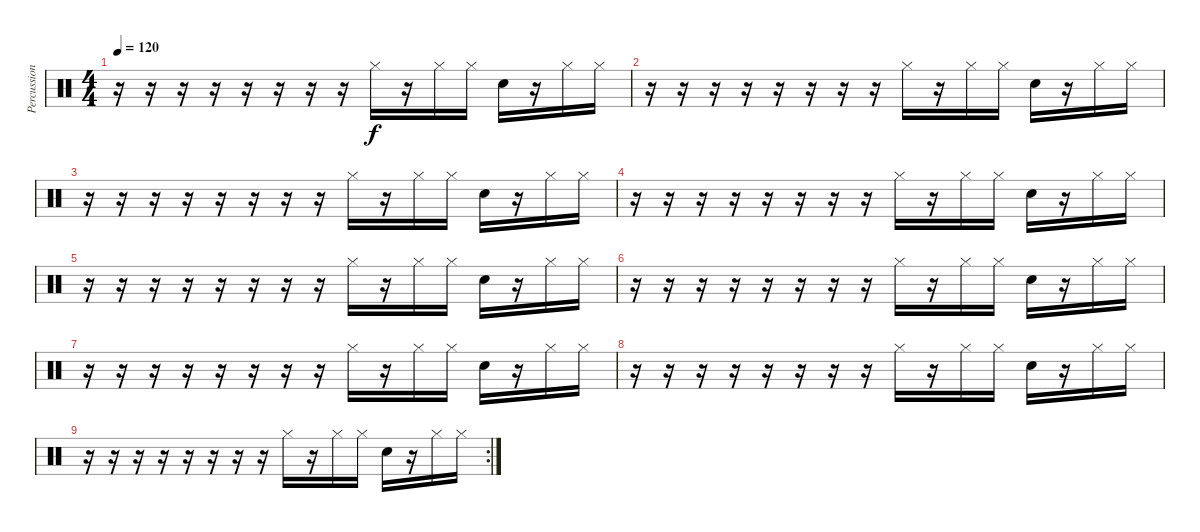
\track ("Percussion" "Percussion") {instrument percussion bank 115}
\staff {score}
\articulation defaults
\ts (4 4)
\tempo 120
\clef neutral
\ks c
r.16{dy f} r.16 r.16 r.16 r.16 r.16 r.16 r.16 "Hi-Hat (closed)".16 r.16 "Hi-Hat (closed)".16 "Hi-Hat (closed)".16 "Snare (hit) 2".16 r.16 "Hi-Hat (closed)".16 "Hi-Hat (closed)".16 |
r.16 r.16 r.16 r.16 r.16 r.16 r.16 r.16 "Hi-Hat (closed)".16 r.16 "Hi-Hat (closed)".16 "Hi-Hat (closed)".16 "Snare (hit) 2".16 r.16 "Hi-Hat (closed)".16 "Hi-Hat (closed)".16 |
r.16 r.16 r.16 r.16 r.16 r.16 r.16 r.16 "Hi-Hat (closed)".16 r.16 "Hi-Hat (closed)".16 "Hi-Hat (closed)".16 "Snare (hit) 2".16 r.16 "Hi-Hat (closed)".16 "Hi-Hat (closed)".16 |
r.16 r.16 r.16 r.16 r.16 r.16 r.16 r.16 "Hi-Hat (closed)".16 r.16 "Hi-Hat (closed)".16 "Hi-Hat (closed)".16 "Snare (hit) 2".16 r.16 "Hi-Hat (closed)".16 "Hi-Hat (closed)".16 |
r.16 r.16 r.16 r.16 r.16 r.16 r.16 r.16 "Hi-Hat (closed)".16 r.16 "Hi-Hat (closed)".16 "Hi-Hat (closed)".16 "Snare (hit) 2".16 r.16 "Hi-Hat (closed)".16 "Hi-Hat (closed)".16 |
r.16 r.16 r.16 r.16 r.16 r.16 r.16 r.16 "Hi-Hat (closed)".16 r.16 "Hi-Hat (closed)".16 "Hi-Hat (closed)".16 "Snare (hit) 2".16 r.16 "Hi-Hat (closed)".16 "Hi-Hat (closed)".16 |
r.16 r.16 r.16 r.16 r.16 r.16 r.16 r.16 "Hi-Hat (closed)".16 r.16 "Hi-Hat (closed)".16 "Hi-Hat (closed)".16 "Snare (hit) 2".16 r.16 "Hi-Hat (closed)".16 "Hi-Hat (closed)".16 |
r.16 r.16 r.16 r.16 r.16 r.16 r.16 r.16 "Hi-Hat (closed)".16 r.16 "Hi-Hat (closed)".16 "Hi-Hat (closed)".16 "Snare (hit) 2".16 r.16 "Hi-Hat (closed)".16 "Hi-Hat (closed)".16 |
\rc 2
r.16 r.16 r.16 r.16 r.16 r.16 r.16 r.16 "Hi-Hat (closed)".16 r.16 "Hi-Hat (closed)".16 "Hi-Hat (closed)".16 "Snare (hit) 2".16 r.16 "Hi-Hat (closed)".16 "Hi-Hat (closed)".16
